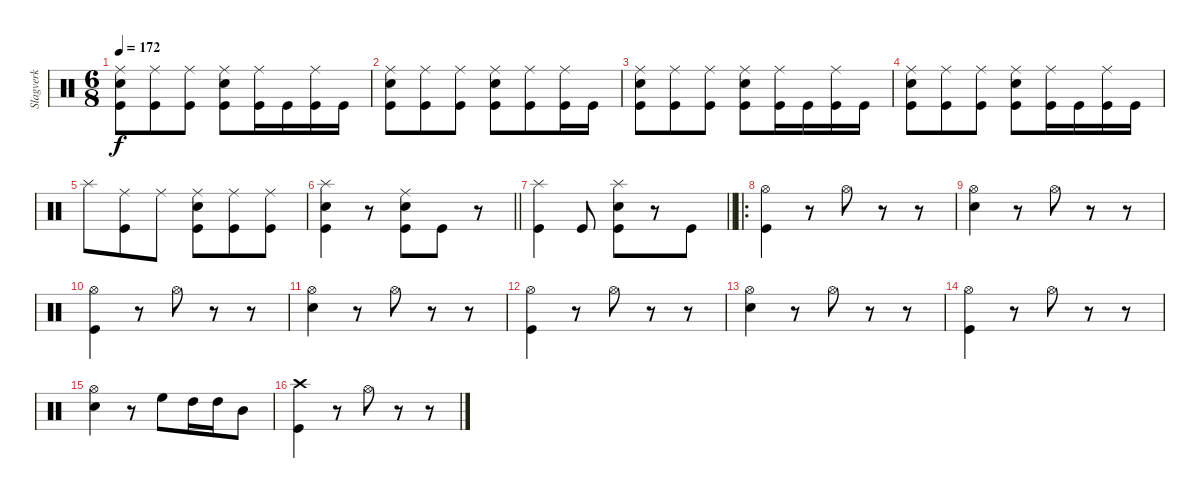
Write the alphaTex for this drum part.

\track ("Slagverk" "Slagverk") {instrument percussion}
\staff {score}
\articulation defaults
\ts (6 8)
\tempo 172
\clef neutral
\ks c
("Ride (middle)" "Snare (hit) 2" "Kick (hit)").8{dy f} ("Ride (middle)" "Kick (hit)").8 ("Ride (middle)" "Kick (hit)").8 ("Ride (middle)" "Snare (hit) 2" "Kick (hit)").8 ("Ride (middle)" "Kick (hit)").16 "Kick (hit)".16 ("Ride (middle)" "Kick (hit)").16 "Kick (hit)".16 |
("Ride (middle)" "Snare (hit) 2" "Kick (hit)").8 ("Ride (middle)" "Kick (hit)").8 ("Ride (middle)" "Kick (hit)").8 ("Ride (middle)" "Snare (hit) 2" "Kick (hit)").8 ("Ride (middle)" "Kick (hit)").8 ("Ride (middle)" "Kick (hit)").16 "Kick (hit)".16 |
("Ride (middle)" "Snare (hit) 2" "Kick (hit)").8 ("Ride (middle)" "Kick (hit)").8 ("Ride (middle)" "Kick (hit)").8 ("Ride (middle)" "Snare (hit) 2" "Kick (hit)").8 ("Ride (middle)" "Kick (hit)").16 "Kick (hit)".16 ("Ride (middle)" "Kick (hit)").16 "Kick (hit)".16 |
("Ride (middle)" "Snare (hit) 2" "Kick (hit)").8 ("Ride (middle)" "Kick (hit)").8 ("Ride (middle)" "Kick (hit)").8 ("Ride (middle)" "Snare (hit) 2" "Kick (hit)").8 ("Ride (middle)" "Kick (hit)").16 "Kick (hit)".16 ("Ride (middle)" "Kick (hit)").16 "Kick (hit)".16 |
"Splash (hit)".8 ("Ride (middle)" "Kick (hit)").8 "Ride (middle)".8 ("Ride (middle)" "Snare (hit) 2" "Kick (hit)").8 ("Ride (middle)" "Kick (hit)").8 ("Ride (middle)" "Kick (hit)").8 |
\barLineRight lightlight
("Splash (hit)" "Snare (hit) 2" "Kick (hit)").4 r.8 ("Ride (middle)" "Snare (hit) 2" "Kick (hit)").8 "Kick (hit)".8 r.8 |
\barLineRight lightlight
("Splash (hit)" "Kick (hit)").4 "Kick (hit)".8 ("Splash (hit)" "Snare (hit) 2" "Kick (hit)").8 r.8 "Kick (hit)".8 |
\ro
("Hi-Hat (open)" "Kick (hit)").4 r.8 "Hi-Hat (open)".8 r.8 r.8 |
("Hi-Hat (open)" "Snare (hit) 2").4 r.8 "Hi-Hat (open)".8 r.8 r.8 |
("Hi-Hat (open)" "Kick (hit)").4 r.8 "Hi-Hat (open)".8 r.8 r.8 |
("Hi-Hat (open)" "Snare (hit) 2").4 r.8 "Hi-Hat (open)".8 r.8 r.8 |
("Hi-Hat (open)" "Kick (hit)").4 r.8 "Hi-Hat (open)".8 r.8 r.8 |
("Hi-Hat (open)" "Snare (hit) 2").4 r.8 "Hi-Hat (open)".8 r.8 r.8 |
("Hi-Hat (open)" "Kick (hit)").4 r.8 "Hi-Hat (open)".8 r.8 r.8 |
("Hi-Hat (open)" "Snare (hit) 2").4 r.8 "High Floor Tom (hit)".8 "High Tom (hit)".16 "High Tom (hit)".16 "Mid Tom (hit)".8 |
("Crash high (hit)" "Kick (hit)").4 r.8 "Hi-Hat (open)".8 r.8 r.8
